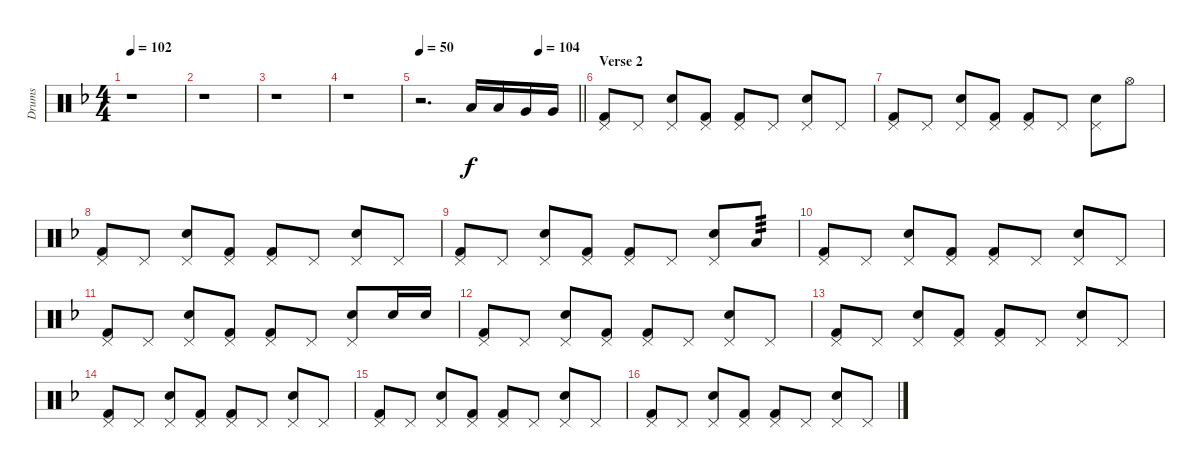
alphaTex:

\track ("Drums" "Drums") {instrument percussion}
\staff {score}
\articulation defaults
\ts (4 4)
\tempo 102
\clef neutral
\ks f
r.1{dy ff} |
r.1 |
r.1 |
r.1 |
\tempo 50
\tempo (104 0.75)
\barLineRight lightlight
r.2{d} "Low Tom (hit)".16{dy f} "Low Tom (hit)".16 "Very Low Tom (hit)".16 "Very Low Tom (hit)".16 |
\section ("" "Verse 2")
("Pedal Hi-Hat (hit)" "Kick (hit) 2").8 "Pedal Hi-Hat (hit)".8 ("Pedal Hi-Hat (hit)" "Electric Snare (hit)").8 ("Pedal Hi-Hat (hit)" "Kick (hit) 2").8 ("Pedal Hi-Hat (hit)" "Kick (hit) 2").8 "Pedal Hi-Hat (hit)".8 ("Pedal Hi-Hat (hit)" "Electric Snare (hit)").8 "Pedal Hi-Hat (hit)".8 |
("Pedal Hi-Hat (hit)" "Kick (hit) 2").8 "Pedal Hi-Hat (hit)".8 ("Pedal Hi-Hat (hit)" "Electric Snare (hit)").8 ("Pedal Hi-Hat (hit)" "Kick (hit) 2").8 ("Pedal Hi-Hat (hit)" "Kick (hit) 2").8 "Pedal Hi-Hat (hit)".8 ("Pedal Hi-Hat (hit)" "Electric Snare (hit)").8 "Hi-Hat (open)".8 |
("Pedal Hi-Hat (hit)" "Kick (hit) 2").8 "Pedal Hi-Hat (hit)".8 ("Pedal Hi-Hat (hit)" "Electric Snare (hit)").8 ("Pedal Hi-Hat (hit)" "Kick (hit) 2").8 ("Pedal Hi-Hat (hit)" "Kick (hit) 2").8 "Pedal Hi-Hat (hit)".8 ("Pedal Hi-Hat (hit)" "Electric Snare (hit)").8 "Pedal Hi-Hat (hit)".8 |
("Pedal Hi-Hat (hit)" "Kick (hit) 2").8 "Pedal Hi-Hat (hit)".8 ("Pedal Hi-Hat (hit)" "Electric Snare (hit)").8 ("Pedal Hi-Hat (hit)" "Kick (hit) 2").8 ("Pedal Hi-Hat (hit)" "Kick (hit) 2").8 "Pedal Hi-Hat (hit)".8 ("Pedal Hi-Hat (hit)" "Electric Snare (hit)").8 "Low Tom (hit)".8{tp 3} |
("Pedal Hi-Hat (hit)" "Kick (hit) 2").8 "Pedal Hi-Hat (hit)".8 ("Pedal Hi-Hat (hit)" "Electric Snare (hit)").8 ("Pedal Hi-Hat (hit)" "Kick (hit) 2").8 ("Pedal Hi-Hat (hit)" "Kick (hit) 2").8 "Pedal Hi-Hat (hit)".8 ("Pedal Hi-Hat (hit)" "Electric Snare (hit)").8 "Pedal Hi-Hat (hit)".8 |
("Pedal Hi-Hat (hit)" "Kick (hit) 2").8 "Pedal Hi-Hat (hit)".8 ("Pedal Hi-Hat (hit)" "Electric Snare (hit)").8 ("Pedal Hi-Hat (hit)" "Kick (hit) 2").8 ("Pedal Hi-Hat (hit)" "Kick (hit) 2").8 "Pedal Hi-Hat (hit)".8 ("Pedal Hi-Hat (hit)" "Electric Snare (hit)").8 "Electric Snare (hit)".16 "Electric Snare (hit)".16 |
("Pedal Hi-Hat (hit)" "Kick (hit) 2").8 "Pedal Hi-Hat (hit)".8 ("Pedal Hi-Hat (hit)" "Electric Snare (hit)").8 ("Pedal Hi-Hat (hit)" "Kick (hit) 2").8 ("Pedal Hi-Hat (hit)" "Kick (hit) 2").8 "Pedal Hi-Hat (hit)".8 ("Pedal Hi-Hat (hit)" "Electric Snare (hit)").8 "Pedal Hi-Hat (hit)".8 |
("Pedal Hi-Hat (hit)" "Kick (hit) 2").8 "Pedal Hi-Hat (hit)".8 ("Pedal Hi-Hat (hit)" "Electric Snare (hit)").8 ("Pedal Hi-Hat (hit)" "Kick (hit) 2").8 ("Pedal Hi-Hat (hit)" "Kick (hit) 2").8 "Pedal Hi-Hat (hit)".8 ("Pedal Hi-Hat (hit)" "Electric Snare (hit)").8 "Pedal Hi-Hat (hit)".8 |
("Pedal Hi-Hat (hit)" "Kick (hit) 2").8 "Pedal Hi-Hat (hit)".8 ("Pedal Hi-Hat (hit)" "Electric Snare (hit)").8 ("Pedal Hi-Hat (hit)" "Kick (hit) 2").8 ("Pedal Hi-Hat (hit)" "Kick (hit) 2").8 "Pedal Hi-Hat (hit)".8 ("Pedal Hi-Hat (hit)" "Electric Snare (hit)").8 "Pedal Hi-Hat (hit)".8 |
("Pedal Hi-Hat (hit)" "Kick (hit) 2").8 "Pedal Hi-Hat (hit)".8 ("Pedal Hi-Hat (hit)" "Electric Snare (hit)").8 ("Pedal Hi-Hat (hit)" "Kick (hit) 2").8 ("Pedal Hi-Hat (hit)" "Kick (hit) 2").8 "Pedal Hi-Hat (hit)".8 ("Pedal Hi-Hat (hit)" "Electric Snare (hit)").8 "Pedal Hi-Hat (hit)".8 |
("Pedal Hi-Hat (hit)" "Kick (hit) 2").8 "Pedal Hi-Hat (hit)".8 ("Pedal Hi-Hat (hit)" "Electric Snare (hit)").8 ("Pedal Hi-Hat (hit)" "Kick (hit) 2").8 ("Pedal Hi-Hat (hit)" "Kick (hit) 2").8 "Pedal Hi-Hat (hit)".8 ("Pedal Hi-Hat (hit)" "Electric Snare (hit)").8 "Pedal Hi-Hat (hit)".8
